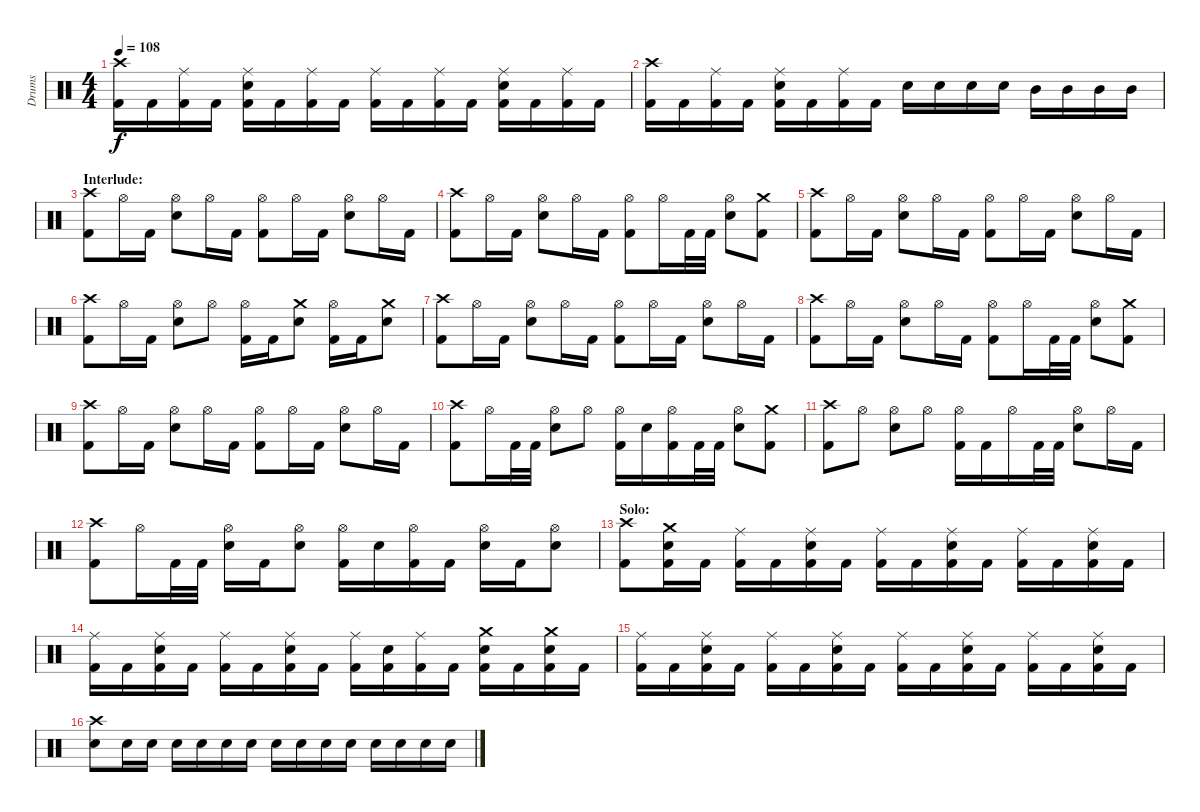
\track ("Drums" "Drums") {instrument percussion}
\staff {score}
\articulation defaults
\ts (4 4)
\tempo 108
\clef neutral
\ks c
("Crash high (hit)" "Kick (hit) 2").16{dy f} "Kick (hit) 2".16 ("Ride (middle)" "Kick (hit) 2").16 "Kick (hit) 2".16 ("Ride (middle)" "Electric Snare (hit)" "Kick (hit) 2").16 "Kick (hit) 2".16 ("Ride (middle)" "Kick (hit) 2").16 "Kick (hit) 2".16 ("Ride (middle)" "Kick (hit) 2").16 "Kick (hit) 2".16 ("Ride (middle)" "Kick (hit) 2").16 "Kick (hit) 2".16 ("Ride (middle)" "Electric Snare (hit)" "Kick (hit) 2").16 "Kick (hit) 2".16 ("Ride (middle)" "Kick (hit) 2").16 "Kick (hit) 2".16 |
("Crash high (hit)" "Kick (hit) 2").16 "Kick (hit) 2".16 ("Ride (middle)" "Kick (hit) 2").16 "Kick (hit) 2".16 ("Ride (middle)" "Electric Snare (hit)" "Kick (hit) 2").16 "Kick (hit) 2".16 ("Ride (middle)" "Kick (hit) 2").16 "Kick (hit) 2".16 "Electric Snare (hit)".16 "Electric Snare (hit)".16 "Electric Snare (hit)".16 "Electric Snare (hit)".16 "Mid Tom (hit)".16 "Mid Tom (hit)".16 "Mid Tom (hit)".16 "Mid Tom (hit)".16 |
\section ("" "Interlude:")
("Crash high (hit)" "Kick (hit) 2").8 "Hi-Hat (open)".16 "Kick (hit) 2".16 ("Hi-Hat (open)" "Electric Snare (hit)").8 "Hi-Hat (open)".16 "Kick (hit) 2".16 ("Hi-Hat (open)" "Kick (hit) 2").8 "Hi-Hat (open)".16 "Kick (hit) 2".16 ("Hi-Hat (open)" "Electric Snare (hit)").8 "Hi-Hat (open)".16 "Kick (hit) 2".16 |
("Crash high (hit)" "Kick (hit) 2").8 "Hi-Hat (open)".16 "Kick (hit) 2".16 ("Hi-Hat (open)" "Electric Snare (hit)").8 "Hi-Hat (open)".16 "Kick (hit) 2".16 ("Hi-Hat (open)" "Kick (hit) 2").8 "Hi-Hat (open)".16 "Kick (hit) 2".32 "Kick (hit) 2".32 ("Hi-Hat (open)" "Electric Snare (hit)").8 ("Crash medium (hit)" "Kick (hit) 2").8 |
("Crash high (hit)" "Kick (hit) 2").8 "Hi-Hat (open)".16 "Kick (hit) 2".16 ("Hi-Hat (open)" "Electric Snare (hit)").8 "Hi-Hat (open)".16 "Kick (hit) 2".16 ("Hi-Hat (open)" "Kick (hit) 2").8 "Hi-Hat (open)".16 "Kick (hit) 2".16 ("Hi-Hat (open)" "Electric Snare (hit)").8 "Hi-Hat (open)".16 "Kick (hit) 2".16 |
("Crash high (hit)" "Kick (hit) 2").8 "Hi-Hat (open)".16 "Kick (hit) 2".16 ("Hi-Hat (open)" "Electric Snare (hit)").8 "Hi-Hat (open)".8 ("Hi-Hat (open)" "Kick (hit) 2").16 "Kick (hit) 2".16 ("Crash medium (hit)" "Electric Snare (hit)").8 ("Hi-Hat (open)" "Kick (hit) 2").16 "Kick (hit) 2".16 ("Crash medium (hit)" "Electric Snare (hit)").8 |
("Crash high (hit)" "Kick (hit) 2").8 "Hi-Hat (open)".16 "Kick (hit) 2".16 ("Hi-Hat (open)" "Electric Snare (hit)").8 "Hi-Hat (open)".16 "Kick (hit) 2".16 ("Hi-Hat (open)" "Kick (hit) 2").8 "Hi-Hat (open)".16 "Kick (hit) 2".16 ("Hi-Hat (open)" "Electric Snare (hit)").8 "Hi-Hat (open)".16 "Kick (hit) 2".16 |
("Crash high (hit)" "Kick (hit) 2").8 "Hi-Hat (open)".16 "Kick (hit) 2".16 ("Hi-Hat (open)" "Electric Snare (hit)").8 "Hi-Hat (open)".16 "Kick (hit) 2".16 ("Hi-Hat (open)" "Kick (hit) 2").8 "Hi-Hat (open)".16 "Kick (hit) 2".32 "Kick (hit) 2".32 ("Hi-Hat (open)" "Electric Snare (hit)").8 ("Crash medium (hit)" "Kick (hit) 2").8 |
("Crash high (hit)" "Kick (hit) 2").8 "Hi-Hat (open)".16 "Kick (hit) 2".16 ("Hi-Hat (open)" "Electric Snare (hit)").8 "Hi-Hat (open)".16 "Kick (hit) 2".16 ("Hi-Hat (open)" "Kick (hit) 2").8 "Hi-Hat (open)".16 "Kick (hit) 2".16 ("Hi-Hat (open)" "Electric Snare (hit)").8 "Hi-Hat (open)".16 "Kick (hit) 2".16 |
("Crash high (hit)" "Kick (hit) 2").8 "Hi-Hat (open)".16 "Kick (hit) 2".32 "Kick (hit) 2".32 ("Hi-Hat (open)" "Electric Snare (hit)").8 "Hi-Hat (open)".8 ("Hi-Hat (open)" "Kick (hit) 2").16 "Electric Snare (hit)".16 ("Hi-Hat (open)" "Kick (hit) 2").16 "Kick (hit) 2".32 "Kick (hit) 2".32 ("Hi-Hat (open)" "Electric Snare (hit)").8 ("Crash medium (hit)" "Kick (hit) 2").8 |
("Crash high (hit)" "Kick (hit) 2").8 "Hi-Hat (open)".8 ("Hi-Hat (open)" "Electric Snare (hit)").8 "Hi-Hat (open)".8 ("Hi-Hat (open)" "Kick (hit) 2").16 "Kick (hit) 2".16 "Hi-Hat (open)".16 "Kick (hit) 2".32 "Kick (hit) 2".32 ("Hi-Hat (open)" "Electric Snare (hit)").8 "Hi-Hat (open)".16 "Kick (hit) 2".16 |
("Crash high (hit)" "Kick (hit) 2").8 "Hi-Hat (open)".16 "Kick (hit) 2".32 "Kick (hit) 2".32 ("Hi-Hat (open)" "Electric Snare (hit)").16 "Kick (hit) 2".16 ("Hi-Hat (open)" "Electric Snare (hit)").8 ("Hi-Hat (open)" "Kick (hit) 2").16 "Electric Snare (hit)".16 ("Hi-Hat (open)" "Kick (hit) 2").16 "Kick (hit) 2".16 ("Hi-Hat (open)" "Electric Snare (hit)").16 "Kick (hit) 2".16 ("Hi-Hat (open)" "Electric Snare (hit)").8 |
\section ("" "Solo:")
("Crash high (hit)" "Kick (hit) 2").8 ("Crash medium (hit)" "Electric Snare (hit)" "Kick (hit) 2").16 "Kick (hit) 2".16 ("Ride (middle)" "Kick (hit) 2").16 "Kick (hit) 2".16 ("Ride (middle)" "Electric Snare (hit)" "Kick (hit) 2").16 "Kick (hit) 2".16 ("Ride (middle)" "Kick (hit) 2").16 "Kick (hit) 2".16 ("Ride (middle)" "Electric Snare (hit)" "Kick (hit) 2").16 "Kick (hit) 2".16 ("Ride (middle)" "Kick (hit) 2").16 "Kick (hit) 2".16 ("Ride (middle)" "Electric Snare (hit)" "Kick (hit) 2").16 "Kick (hit) 2".16 |
("Ride (middle)" "Kick (hit) 2").16 "Kick (hit) 2".16 ("Ride (middle)" "Electric Snare (hit)" "Kick (hit) 2").16 "Kick (hit) 2".16 ("Ride (middle)" "Kick (hit) 2").16 "Kick (hit) 2".16 ("Ride (middle)" "Electric Snare (hit)" "Kick (hit) 2").16 "Kick (hit) 2".16 ("Ride (middle)" "Kick (hit) 2").16 ("Electric Snare (hit)" "Kick (hit) 2").16 ("Ride (middle)" "Kick (hit) 2").16 "Kick (hit) 2".16 ("Crash medium (hit)" "Electric Snare (hit)" "Kick (hit) 2").16 "Kick (hit) 2".16 ("Crash medium (hit)" "Electric Snare (hit)" "Kick (hit) 2").16 "Kick (hit) 2".16 |
("Ride (middle)" "Kick (hit) 2").16 "Kick (hit) 2".16 ("Ride (middle)" "Electric Snare (hit)" "Kick (hit) 2").16 "Kick (hit) 2".16 ("Ride (middle)" "Kick (hit) 2").16 "Kick (hit) 2".16 ("Ride (middle)" "Electric Snare (hit)" "Kick (hit) 2").16 "Kick (hit) 2".16 ("Ride (middle)" "Kick (hit) 2").16 "Kick (hit) 2".16 ("Ride (middle)" "Electric Snare (hit)" "Kick (hit) 2").16 "Kick (hit) 2".16 ("Ride (middle)" "Kick (hit) 2").16 "Kick (hit) 2".16 ("Ride (middle)" "Electric Snare (hit)" "Kick (hit) 2").16 "Kick (hit) 2".16 |
("Crash high (hit)" "Electric Snare (hit)").8 "Electric Snare (hit)".16 "Electric Snare (hit)".16 "Electric Snare (hit)".16 "Electric Snare (hit)".16 "Electric Snare (hit)".16 "Electric Snare (hit)".16 "Electric Snare (hit)".16 "Electric Snare (hit)".16 "Electric Snare (hit)".16 "Electric Snare (hit)".16 "Electric Snare (hit)".16 "Electric Snare (hit)".16 "Electric Snare (hit)".16 "Electric Snare (hit)".16
